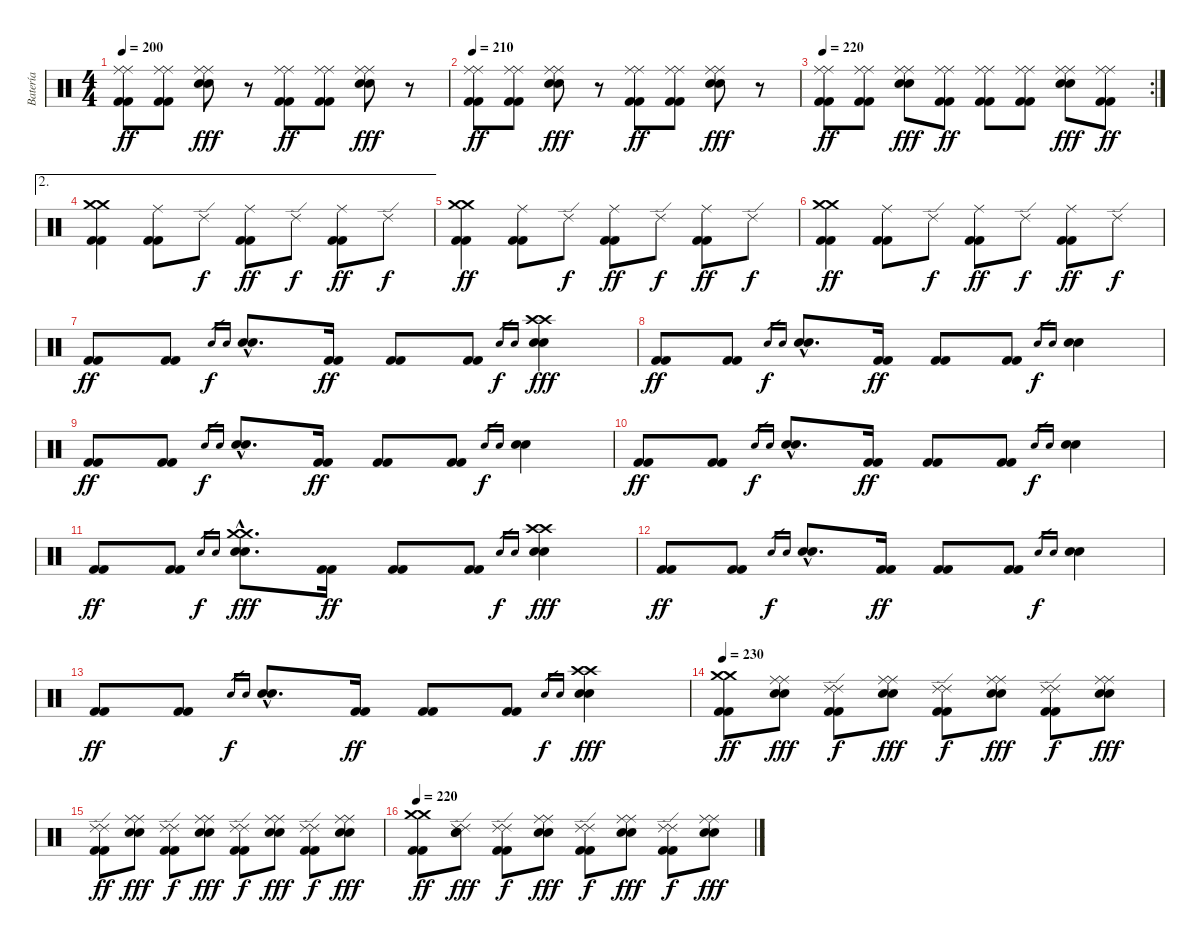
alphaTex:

\track ("Batería" "Batería") {instrument percussion}
\staff {score}
\articulation defaults
\ts (4 4)
\tempo 200
\clef neutral
\ks c
("Ride (middle)" "Ride (middle)" "Kick (hit) 2" "Kick (hit) 2").8{dy ff} ("Ride (middle)" "Ride (middle)" "Kick (hit) 2" "Kick (hit) 2").8 ("Ride (middle)" "Ride (middle)" "Electric Snare (hit)" "Electric Snare (hit)").8{dy fff} r.8 ("Ride (middle)" "Ride (middle)" "Kick (hit) 2" "Kick (hit) 2").8{dy ff} ("Ride (middle)" "Ride (middle)" "Kick (hit) 2" "Kick (hit) 2").8 ("Ride (middle)" "Ride (middle)" "Electric Snare (hit)" "Electric Snare (hit)").8{dy fff} r.8 |
\tempo 210
("Ride (middle)" "Ride (middle)" "Kick (hit) 2" "Kick (hit) 2").8{dy ff} ("Ride (middle)" "Ride (middle)" "Kick (hit) 2" "Kick (hit) 2").8 ("Ride (middle)" "Ride (middle)" "Electric Snare (hit)" "Electric Snare (hit)").8{dy fff} r.8 ("Ride (middle)" "Ride (middle)" "Kick (hit) 2" "Kick (hit) 2").8{dy ff} ("Ride (middle)" "Ride (middle)" "Kick (hit) 2" "Kick (hit) 2").8 ("Ride (middle)" "Ride (middle)" "Electric Snare (hit)" "Electric Snare (hit)").8{dy fff} r.8 |
\rc 2
\tempo 220
("Ride (middle)" "Ride (middle)" "Kick (hit) 2" "Kick (hit) 2").8{dy ff} ("Ride (middle)" "Ride (middle)" "Kick (hit) 2" "Kick (hit) 2").8 ("Ride (middle)" "Ride (middle)" "Electric Snare (hit)" "Electric Snare (hit)").8{dy fff} ("Ride (middle)" "Ride (middle)" "Kick (hit) 2" "Kick (hit) 2").8{dy ff} ("Ride (middle)" "Ride (middle)" "Kick (hit) 2" "Kick (hit) 2").8 ("Ride (middle)" "Ride (middle)" "Kick (hit) 2" "Kick (hit) 2").8 ("Ride (middle)" "Ride (middle)" "Electric Snare (hit)" "Electric Snare (hit)").8{dy fff} ("Ride (middle)" "Ride (middle)" "Kick (hit) 2" "Kick (hit) 2").8{dy ff} |
\ae 2
("Crash medium (hit)" "Crash medium (hit)" "Kick (hit) 2" "Kick (hit) 2").4 ("Ride (middle)" "Kick (hit) 2" "Kick (hit) 2").8 "Ride (edge) 2".8{dy f} ("Ride (middle)" "Kick (hit) 2" "Kick (hit) 2").8{dy ff} "Ride (edge) 2".8{dy f} ("Ride (middle)" "Kick (hit) 2" "Kick (hit) 2").8{dy ff} "Ride (edge) 2".8{dy f} |
("Crash medium (hit)" "Crash medium (hit)" "Kick (hit) 2" "Kick (hit) 2").4{dy ff} ("Ride (middle)" "Kick (hit) 2" "Kick (hit) 2").8 "Ride (edge) 2".8{dy f} ("Ride (middle)" "Kick (hit) 2" "Kick (hit) 2").8{dy ff} "Ride (edge) 2".8{dy f} ("Ride (middle)" "Kick (hit) 2" "Kick (hit) 2").8{dy ff} "Ride (edge) 2".8{dy f} |
("Crash medium (hit)" "Crash medium (hit)" "Kick (hit) 2" "Kick (hit) 2").4{dy ff} ("Ride (middle)" "Kick (hit) 2" "Kick (hit) 2").8 "Ride (edge) 2".8{dy f} ("Ride (middle)" "Kick (hit) 2" "Kick (hit) 2").8{dy ff} "Ride (edge) 2".8{dy f} ("Ride (middle)" "Kick (hit) 2" "Kick (hit) 2").8{dy ff} "Ride (edge) 2".8{dy f} |
("Kick (hit) 2" "Kick (hit) 2").8{dy ff} ("Kick (hit) 2" "Kick (hit) 2").8 "Electric Snare (hit)".16{gr dy f} "Electric Snare (hit)".16{gr} ("Electric Snare (hit)"{hac} "Electric Snare (hit)"{hac}).8{d} ("Kick (hit) 2" "Kick (hit) 2").16{dy ff} ("Kick (hit) 2" "Kick (hit) 2").8 ("Kick (hit) 2" "Kick (hit) 2").8 "Electric Snare (hit)".16{gr dy f} "Electric Snare (hit)".16{gr} ("Crash high (hit)" "Crash high (hit)" "Electric Snare (hit)" "Electric Snare (hit)").4{dy fff} |
("Kick (hit) 2" "Kick (hit) 2").8{dy ff} ("Kick (hit) 2" "Kick (hit) 2").8 "Electric Snare (hit)".16{gr dy f} "Electric Snare (hit)".16{gr} ("Electric Snare (hit)"{hac} "Electric Snare (hit)"{hac}).8{d} ("Kick (hit) 2" "Kick (hit) 2").16{dy ff} ("Kick (hit) 2" "Kick (hit) 2").8 ("Kick (hit) 2" "Kick (hit) 2").8 "Electric Snare (hit)".16{gr dy f} "Electric Snare (hit)".16{gr} ("Electric Snare (hit)" "Electric Snare (hit)").4 |
("Kick (hit) 2" "Kick (hit) 2").8{dy ff} ("Kick (hit) 2" "Kick (hit) 2").8 "Electric Snare (hit)".16{gr dy f} "Electric Snare (hit)".16{gr} ("Electric Snare (hit)"{hac} "Electric Snare (hit)"{hac}).8{d} ("Kick (hit) 2" "Kick (hit) 2").16{dy ff} ("Kick (hit) 2" "Kick (hit) 2").8 ("Kick (hit) 2" "Kick (hit) 2").8 "Electric Snare (hit)".16{gr dy f} "Electric Snare (hit)".16{gr} ("Electric Snare (hit)" "Electric Snare (hit)").4 |
("Kick (hit) 2" "Kick (hit) 2").8{dy ff} ("Kick (hit) 2" "Kick (hit) 2").8 "Electric Snare (hit)".16{gr dy f} "Electric Snare (hit)".16{gr} ("Electric Snare (hit)"{hac} "Electric Snare (hit)"{hac}).8{d} ("Kick (hit) 2" "Kick (hit) 2").16{dy ff} ("Kick (hit) 2" "Kick (hit) 2").8 ("Kick (hit) 2" "Kick (hit) 2").8 "Electric Snare (hit)".16{gr dy f} "Electric Snare (hit)".16{gr} ("Electric Snare (hit)" "Electric Snare (hit)").4 |
("Kick (hit) 2" "Kick (hit) 2").8{dy ff} ("Kick (hit) 2" "Kick (hit) 2").8 "Electric Snare (hit)".16{gr dy f} "Electric Snare (hit)".16{gr} ("Crash medium (hit)"{hac} "Crash medium (hit)"{hac} "Electric Snare (hit)"{hac} "Electric Snare (hit)"{hac}).8{d dy fff} ("Kick (hit) 2" "Kick (hit) 2").16{dy ff} ("Kick (hit) 2" "Kick (hit) 2").8 ("Kick (hit) 2" "Kick (hit) 2").8 "Electric Snare (hit)".16{gr dy f} "Electric Snare (hit)".16{gr} ("Crash high (hit)" "Crash high (hit)" "Electric Snare (hit)" "Electric Snare (hit)").4{dy fff} |
("Kick (hit) 2" "Kick (hit) 2").8{dy ff} ("Kick (hit) 2" "Kick (hit) 2").8 "Electric Snare (hit)".16{gr dy f} "Electric Snare (hit)".16{gr} ("Electric Snare (hit)"{hac} "Electric Snare (hit)"{hac}).8{d} ("Kick (hit) 2" "Kick (hit) 2").16{dy ff} ("Kick (hit) 2" "Kick (hit) 2").8 ("Kick (hit) 2" "Kick (hit) 2").8 "Electric Snare (hit)".16{gr dy f} "Electric Snare (hit)".16{gr} ("Electric Snare (hit)" "Electric Snare (hit)").4 |
("Kick (hit) 2" "Kick (hit) 2").8{dy ff} ("Kick (hit) 2" "Kick (hit) 2").8 "Electric Snare (hit)".16{gr dy f} "Electric Snare (hit)".16{gr} ("Electric Snare (hit)"{hac} "Electric Snare (hit)"{hac}).8{d} ("Kick (hit) 2" "Kick (hit) 2").16{dy ff} ("Kick (hit) 2" "Kick (hit) 2").8 ("Kick (hit) 2" "Kick (hit) 2").8 "Electric Snare (hit)".16{gr dy f} "Electric Snare (hit)".16{gr} ("Crash high (hit)" "Crash high (hit)" "Electric Snare (hit)" "Electric Snare (hit)").4{dy fff} |
\tempo 230
("Crash medium (hit)" "Crash medium (hit)" "Kick (hit) 2" "Kick (hit) 2").8{dy ff} ("Ride (middle)" "Ride (middle)" "Electric Snare (hit)" "Electric Snare (hit)").8{dy fff} ("Ride (edge) 2" "Ride (edge) 2" "Kick (hit) 2" "Kick (hit) 2").8{dy f} ("Ride (middle)" "Ride (middle)" "Electric Snare (hit)" "Electric Snare (hit)").8{dy fff} ("Ride (edge) 2" "Ride (edge) 2" "Kick (hit) 2" "Kick (hit) 2").8{dy f} ("Ride (middle)" "Ride (middle)" "Electric Snare (hit)" "Electric Snare (hit)").8{dy fff} ("Ride (edge) 2" "Ride (edge) 2" "Kick (hit) 2" "Kick (hit) 2").8{dy f} ("Ride (middle)" "Ride (middle)" "Electric Snare (hit)" "Electric Snare (hit)").8{dy fff} |
("Ride (edge) 2" "Ride (edge) 2" "Kick (hit) 2" "Kick (hit) 2").8{dy ff} ("Ride (middle)" "Ride (middle)" "Electric Snare (hit)" "Electric Snare (hit)").8{dy fff} ("Ride (edge) 2" "Ride (edge) 2" "Kick (hit) 2" "Kick (hit) 2").8{dy f} ("Ride (middle)" "Ride (middle)" "Electric Snare (hit)" "Electric Snare (hit)").8{dy fff} ("Ride (edge) 2" "Ride (edge) 2" "Kick (hit) 2" "Kick (hit) 2").8{dy f} ("Ride (middle)" "Ride (middle)" "Electric Snare (hit)" "Electric Snare (hit)").8{dy fff} ("Ride (edge) 2" "Ride (edge) 2" "Kick (hit) 2" "Kick (hit) 2").8{dy f} ("Ride (middle)" "Ride (middle)" "Electric Snare (hit)" "Electric Snare (hit)").8{dy fff} |
\tempo 220
("Crash medium (hit)" "Crash medium (hit)" "Kick (hit) 2" "Kick (hit) 2").8{dy ff} ("Ride (edge) 2" "Ride (edge) 2" "Electric Snare (hit)" "Electric Snare (hit)").8{dy fff} ("Ride (edge) 2" "Ride (edge) 2" "Kick (hit) 2" "Kick (hit) 2").8{dy f} ("Ride (middle)" "Ride (middle)" "Electric Snare (hit)" "Electric Snare (hit)").8{dy fff} ("Ride (edge) 2" "Ride (edge) 2" "Kick (hit) 2" "Kick (hit) 2").8{dy f} ("Ride (middle)" "Ride (middle)" "Electric Snare (hit)" "Electric Snare (hit)").8{dy fff} ("Ride (edge) 2" "Ride (edge) 2" "Kick (hit) 2" "Kick (hit) 2").8{dy f} ("Ride (middle)" "Ride (middle)" "Electric Snare (hit)" "Electric Snare (hit)").8{dy fff}
